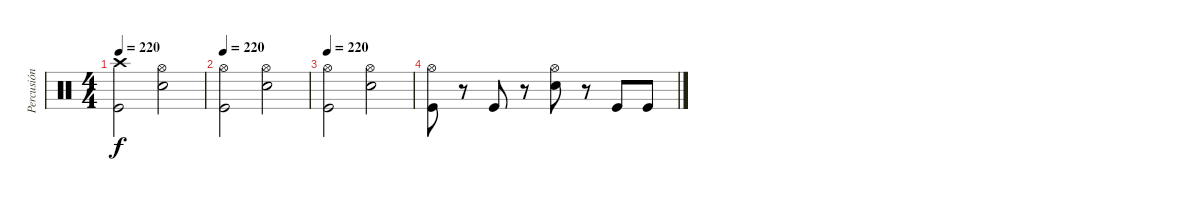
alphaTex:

\track ("Percusión" "Percusión") {instrument percussion}
\staff {score}
\articulation defaults
\ts (4 4)
\tempo 220
\clef neutral
\ks c
("Crash high (hit)" "Kick (hit)").2{dy f} ("Hi-Hat (open)" "Snare (hit) 2").2 |
\tempo 220
("Hi-Hat (open)" "Kick (hit)").2 ("Hi-Hat (open)" "Snare (hit) 2").2 |
\tempo 220
("Hi-Hat (open)" "Kick (hit)").2 ("Hi-Hat (open)" "Snare (hit) 2").2 |
("Hi-Hat (open)" "Kick (hit)").8 r.8 "Kick (hit)".8 r.8 ("Snare (hit) 2" "Hi-Hat (open)").8 r.8 "Kick (hit)".8 "Kick (hit)".8
